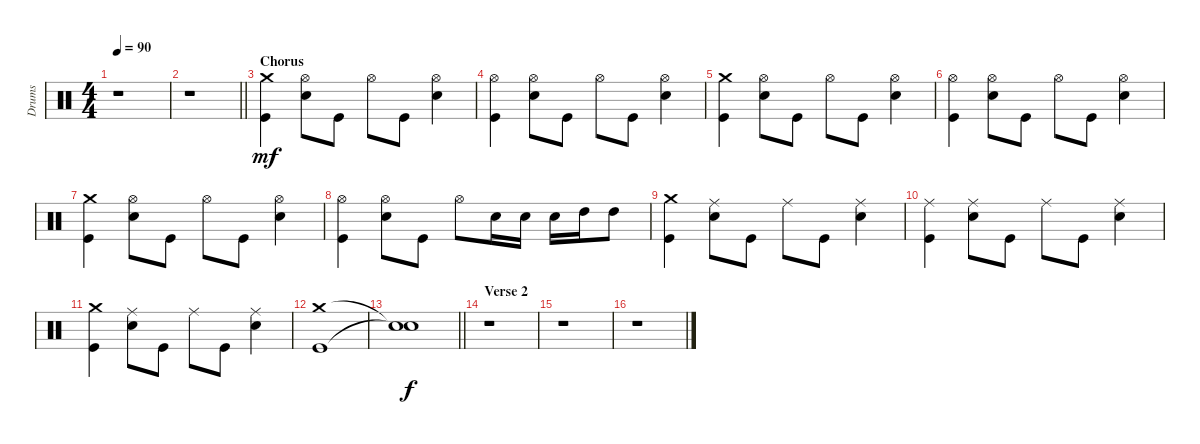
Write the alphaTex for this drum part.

\track ("Drums" "Drums") {instrument percussion}
\staff {score}
\articulation defaults
\ts (4 4)
\tempo 90
\clef neutral
\ks c
r.1{dy mf} |
\barLineRight lightlight
r.1 |
\section ("" "Chorus")
("Crash medium (hit)" "Kick (hit)").4 ("Hi-Hat (open)" "Electric Snare (hit)").8 "Kick (hit)".8 "Hi-Hat (open)".8 "Kick (hit)".8 ("Hi-Hat (open)" "Electric Snare (hit)").4 |
("Hi-Hat (open)" "Kick (hit)").4 ("Hi-Hat (open)" "Electric Snare (hit)").8 "Kick (hit)".8 "Hi-Hat (open)".8 "Kick (hit)".8 ("Hi-Hat (open)" "Electric Snare (hit)").4 |
("Crash medium (hit)" "Kick (hit)").4 ("Hi-Hat (open)" "Electric Snare (hit)").8 "Kick (hit)".8 "Hi-Hat (open)".8 "Kick (hit)".8 ("Hi-Hat (open)" "Electric Snare (hit)").4 |
("Hi-Hat (open)" "Kick (hit)").4 ("Hi-Hat (open)" "Electric Snare (hit)").8 "Kick (hit)".8 "Hi-Hat (open)".8 "Kick (hit)".8 ("Hi-Hat (open)" "Electric Snare (hit)").4 |
("Crash medium (hit)" "Kick (hit)").4 ("Hi-Hat (open)" "Electric Snare (hit)").8 "Kick (hit)".8 "Hi-Hat (open)".8 "Kick (hit)".8 ("Hi-Hat (open)" "Electric Snare (hit)").4 |
("Hi-Hat (open)" "Kick (hit)").4 ("Hi-Hat (open)" "Electric Snare (hit)").8 "Kick (hit)".8 "Hi-Hat (open)".8 "Electric Snare (hit)".16 "Electric Snare (hit)".16 "Electric Snare (hit)".16 "High Tom (hit)".16 "High Tom (hit)".8 |
("Crash medium (hit)" "Kick (hit)").4 ("Ride (middle)" "Electric Snare (hit)").8 "Kick (hit)".8 "Ride (middle)".8 "Kick (hit)".8 ("Ride (middle)" "Electric Snare (hit)").4 |
("Ride (middle)" "Kick (hit)").4 ("Ride (middle)" "Electric Snare (hit)").8 "Kick (hit)".8 "Ride (middle)".8 "Kick (hit)".8 ("Ride (middle)" "Electric Snare (hit)").4 |
("Crash medium (hit)" "Kick (hit)").4 ("Ride (middle)" "Electric Snare (hit)").8 "Kick (hit)".8 "Ride (middle)".8 "Kick (hit)".8 ("Ride (middle)" "Electric Snare (hit)").4 |
("Crash medium (hit)" "Kick (hit)").1 |
\barLineRight lightlight
("Snare (hit)"{t} "Snare (hit)"{t}).1{dy f} |
\section ("" "Verse 2")
r.1 |
r.1 |
r.1
